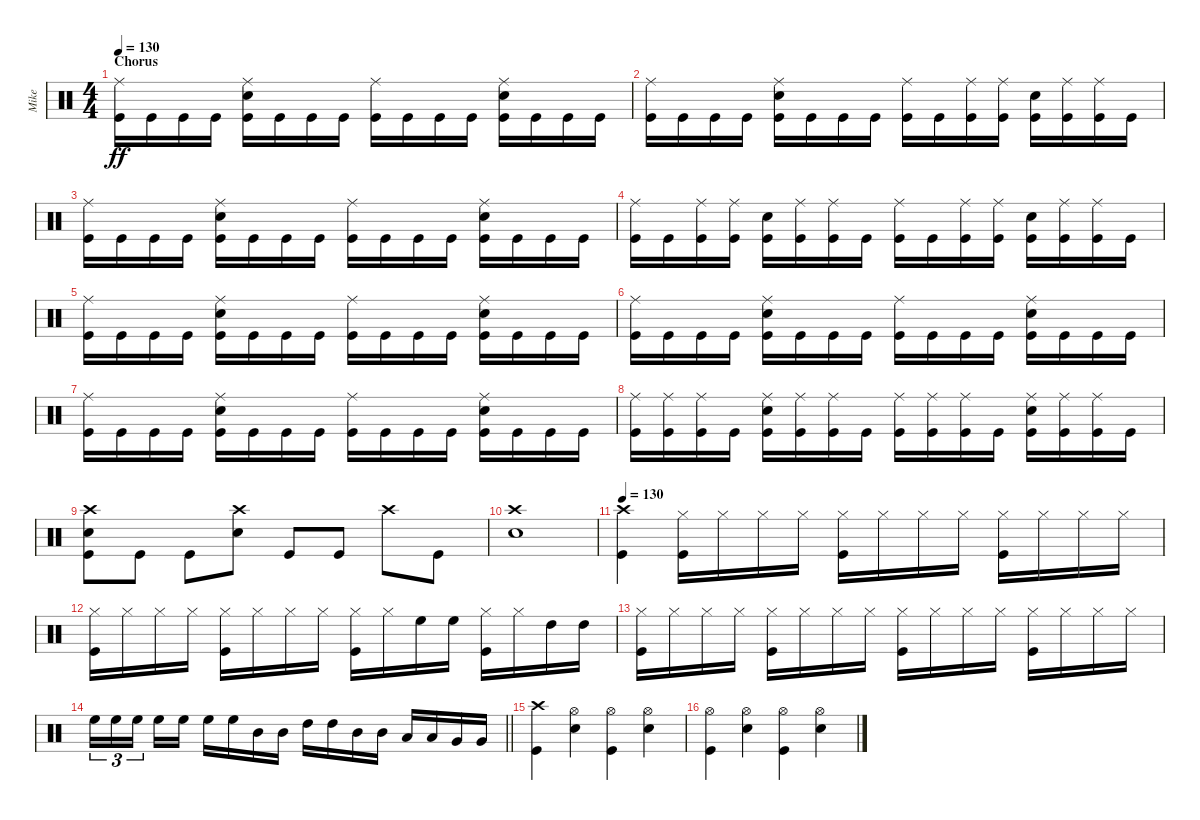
\track ("Mike" "Mike") {instrument percussion}
\staff {score}
\articulation defaults
\ts (4 4)
\section ("" "Chorus")
\tempo 130
\clef neutral
\ks c
("Ride (middle)" "Kick (hit)").16{dy ff} "Kick (hit)".16 "Kick (hit)".16 "Kick (hit)".16 ("Snare (hit) 2" "Ride (middle)" "Kick (hit)").16 "Kick (hit)".16 "Kick (hit)".16 "Kick (hit)".16 ("Ride (middle)" "Kick (hit)").16 "Kick (hit)".16 "Kick (hit)".16 "Kick (hit)".16 ("Snare (hit) 2" "Ride (middle)" "Kick (hit)").16 "Kick (hit)".16 "Kick (hit)".16 "Kick (hit)".16 |
("Ride (middle)" "Kick (hit)").16 "Kick (hit)".16 "Kick (hit)".16 "Kick (hit)".16 ("Snare (hit) 2" "Ride (middle)" "Kick (hit)").16 "Kick (hit)".16 "Kick (hit)".16 "Kick (hit)".16 ("Ride (middle)" "Kick (hit)").16 "Kick (hit)".16 ("Ride (middle)" "Kick (hit)").16 ("Ride (middle)" "Kick (hit)").16 ("Snare (hit) 2" "Kick (hit)").16 ("Ride (middle)" "Kick (hit)").16 ("Ride (middle)" "Kick (hit)").16 "Kick (hit)".16 |
("Ride (middle)" "Kick (hit)").16 "Kick (hit)".16 "Kick (hit)".16 "Kick (hit)".16 ("Snare (hit) 2" "Ride (middle)" "Kick (hit)").16 "Kick (hit)".16 "Kick (hit)".16 "Kick (hit)".16 ("Ride (middle)" "Kick (hit)").16 "Kick (hit)".16 "Kick (hit)".16 "Kick (hit)".16 ("Snare (hit) 2" "Ride (middle)" "Kick (hit)").16 "Kick (hit)".16 "Kick (hit)".16 "Kick (hit)".16 |
("Ride (middle)" "Kick (hit)").16 "Kick (hit)".16 ("Ride (middle)" "Kick (hit)").16 ("Ride (middle)" "Kick (hit)").16 ("Snare (hit) 2" "Kick (hit)").16 ("Ride (middle)" "Kick (hit)").16 ("Ride (middle)" "Kick (hit)").16 "Kick (hit)".16 ("Ride (middle)" "Kick (hit)").16 "Kick (hit)".16 ("Ride (middle)" "Kick (hit)").16 ("Ride (middle)" "Kick (hit)").16 ("Snare (hit) 2" "Kick (hit)").16 ("Ride (middle)" "Kick (hit)").16 ("Ride (middle)" "Kick (hit)").16 "Kick (hit)".16 |
("Ride (middle)" "Kick (hit)").16 "Kick (hit)".16 "Kick (hit)".16 "Kick (hit)".16 ("Snare (hit) 2" "Ride (middle)" "Kick (hit)").16 "Kick (hit)".16 "Kick (hit)".16 "Kick (hit)".16 ("Ride (middle)" "Kick (hit)").16 "Kick (hit)".16 "Kick (hit)".16 "Kick (hit)".16 ("Snare (hit) 2" "Ride (middle)" "Kick (hit)").16 "Kick (hit)".16 "Kick (hit)".16 "Kick (hit)".16 |
("Ride (middle)" "Kick (hit)").16 "Kick (hit)".16 "Kick (hit)".16 "Kick (hit)".16 ("Snare (hit) 2" "Ride (middle)" "Kick (hit)").16 "Kick (hit)".16 "Kick (hit)".16 "Kick (hit)".16 ("Ride (middle)" "Kick (hit)").16 "Kick (hit)".16 "Kick (hit)".16 "Kick (hit)".16 ("Snare (hit) 2" "Ride (middle)" "Kick (hit)").16 "Kick (hit)".16 "Kick (hit)".16 "Kick (hit)".16 |
("Ride (middle)" "Kick (hit)").16 "Kick (hit)".16 "Kick (hit)".16 "Kick (hit)".16 ("Snare (hit) 2" "Ride (middle)" "Kick (hit)").16 "Kick (hit)".16 "Kick (hit)".16 "Kick (hit)".16 ("Ride (middle)" "Kick (hit)").16 "Kick (hit)".16 "Kick (hit)".16 "Kick (hit)".16 ("Snare (hit) 2" "Ride (middle)" "Kick (hit)").16 "Kick (hit)".16 "Kick (hit)".16 "Kick (hit)".16 |
("Ride (middle)" "Kick (hit)").16 ("Ride (middle)" "Kick (hit)").16 ("Ride (middle)" "Kick (hit)").16 "Kick (hit)".16 ("Snare (hit) 2" "Ride (middle)" "Kick (hit)").16 ("Ride (middle)" "Kick (hit)").16 ("Ride (middle)" "Kick (hit)").16 "Kick (hit)".16 ("Ride (middle)" "Kick (hit)").16 ("Ride (middle)" "Kick (hit)").16 ("Ride (middle)" "Kick (hit)").16 "Kick (hit)".16 ("Snare (hit) 2" "Ride (middle)" "Kick (hit)").16 ("Ride (middle)" "Kick (hit)").16 ("Ride (middle)" "Kick (hit)").16 "Kick (hit)".16 |
("Snare (hit) 2" "Kick (hit)" "Crash high (hit)").8 "Kick (hit)".8 "Kick (hit)".8 ("Snare (hit) 2" "Crash high (hit)").8 "Kick (hit)".8 "Kick (hit)".8 "Crash high (hit)".8 "Kick (hit)".8 |
("Snare (hit) 2" "Crash high (hit)").1 |
\tempo 130
("Crash high (hit)" "Kick (hit)").4 ("Kick (hit)" "Hi-Hat (closed)").16 "Hi-Hat (closed)".16 "Hi-Hat (closed)".16 "Hi-Hat (closed)".16 ("Kick (hit)" "Hi-Hat (closed)").16 "Hi-Hat (closed)".16 "Hi-Hat (closed)".16 "Hi-Hat (closed)".16 ("Kick (hit)" "Hi-Hat (closed)").16 "Hi-Hat (closed)".16 "Hi-Hat (closed)".16 "Hi-Hat (closed)".16 |
("Kick (hit)" "Hi-Hat (closed)").16 "Hi-Hat (closed)".16 "Hi-Hat (closed)".16 "Hi-Hat (closed)".16 ("Kick (hit)" "Hi-Hat (closed)").16 "Hi-Hat (closed)".16 "Hi-Hat (closed)".16 "Hi-Hat (closed)".16 ("Kick (hit)" "Hi-Hat (closed)").16 "Hi-Hat (closed)".16 "High Floor Tom (hit)".16 "High Floor Tom (hit)".16 ("Kick (hit)" "Hi-Hat (closed)").16 "Hi-Hat (closed)".16 "High Tom (hit)".16 "High Tom (hit)".16 |
("Kick (hit)" "Hi-Hat (closed)").16 "Hi-Hat (closed)".16 "Hi-Hat (closed)".16 "Hi-Hat (closed)".16 ("Kick (hit)" "Hi-Hat (closed)").16 "Hi-Hat (closed)".16 "Hi-Hat (closed)".16 "Hi-Hat (closed)".16 ("Kick (hit)" "Hi-Hat (closed)").16 "Hi-Hat (closed)".16 "Hi-Hat (closed)".16 "Hi-Hat (closed)".16 ("Kick (hit)" "Hi-Hat (closed)").16 "Hi-Hat (closed)".16 "Hi-Hat (closed)".16 "Hi-Hat (closed)".16 |
\barLineRight lightlight "High Floor Tom (hit)".16{tu (3 2)} "High Floor Tom (hit)".16{tu (3 2)} "High Floor Tom (hit)".16{tu (3 2) beam splitsecondary} "High Floor Tom (hit)".16 "High Floor Tom (hit)".16 "High Floor Tom (hit)".16 "High Floor Tom (hit)".16 "Mid Tom (hit)".16 "Mid Tom (hit)".16 "High Tom (hit)".16 "High Tom (hit)".16 "Mid Tom (hit)".16 "Mid Tom (hit)".16 "Low Tom (hit)".16 "Low Tom (hit)".16 "Very Low Tom (hit)".16 "Very Low Tom (hit)".16
|
("Crash high (hit)" "Kick (hit)").4 ("Snare (hit) 2" "Hi-Hat (open)").4 ("Hi-Hat (open)" "Kick (hit)").4 ("Snare (hit) 2" "Hi-Hat (open)").4 |
("Hi-Hat (open)" "Kick (hit)").4 ("Snare (hit) 2" "Hi-Hat (open)").4 ("Kick (hit)" "Hi-Hat (open)").4 ("Hi-Hat (open)" "Snare (hit) 2").4
